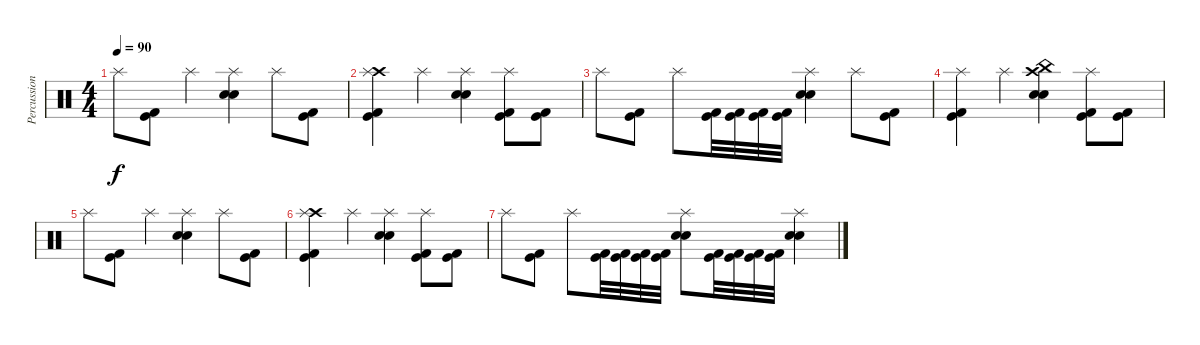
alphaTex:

\track ("Percussion" "Percussion") {instrument percussion}
\staff {score}
\articulation defaults
\ts (4 4)
\tempo 90
\clef neutral
\ks c "Splash (hit)".8{dy f}
("Kick (hit)" "Kick (hit) 2").8 "Splash (hit)".4 ("Splash (hit)" "Electric Snare (hit)" "Snare (hit) 2").4 "Splash (hit)".8 ("Kick (hit)" "Kick (hit) 2").8 |
("Crash high (hit)" "Splash (hit)" "Kick (hit)" "Kick (hit) 2").4 "Splash (hit)".4 ("Splash (hit)" "Electric Snare (hit)" "Snare (hit) 2").4 ("Splash (hit)" "Kick (hit)" "Kick (hit) 2").8 ("Kick (hit)" "Kick (hit) 2").8 |
"Splash (hit)".8 ("Kick (hit)" "Kick (hit) 2").8 "Splash (hit)".8 ("Kick (hit)" "Kick (hit) 2").32 ("Kick (hit)" "Kick (hit) 2").32 ("Kick (hit)" "Kick (hit) 2").32 ("Kick (hit)" "Kick (hit) 2").32 ("Splash (hit)" "Electric Snare (hit)" "Snare (hit) 2").4 "Splash (hit)".8 ("Kick (hit)" "Kick (hit) 2").8 |
("Splash (hit)" "Kick (hit)" "Kick (hit) 2").4{volume 0} "Splash (hit)".4 ("Crash high (hit)" "China (hit)" "Electric Snare (hit)" "Snare (hit) 2").4 ("Splash (hit)" "Kick (hit)" "Kick (hit) 2").8 ("Kick (hit)" "Kick (hit) 2").8 |
"Splash (hit)".8 ("Kick (hit)" "Kick (hit) 2").8 "Splash (hit)".4 ("Splash (hit)" "Electric Snare (hit)" "Snare (hit) 2").4 "Splash (hit)".8 ("Kick (hit)" "Kick (hit) 2").8 |
("Crash high (hit)" "Splash (hit)" "Kick (hit)" "Kick (hit) 2").4 "Splash (hit)".4 ("Splash (hit)" "Electric Snare (hit)" "Snare (hit) 2").4 ("Splash (hit)" "Kick (hit)" "Kick (hit) 2").8 ("Kick (hit)" "Kick (hit) 2").8 |
"Splash (hit)".8 ("Kick (hit)" "Kick (hit) 2").8 "Splash (hit)".8 ("Kick (hit)" "Kick (hit) 2").32 ("Kick (hit)" "Kick (hit) 2").32 ("Kick (hit)" "Kick (hit) 2").32 ("Kick (hit)" "Kick (hit) 2").32 ("Splash (hit)" "Electric Snare (hit)" "Snare (hit) 2").8 ("Kick (hit)" "Kick (hit) 2").32 ("Kick (hit)" "Kick (hit) 2").32 ("Kick (hit)" "Kick (hit) 2").32 ("Kick (hit)" "Kick (hit) 2").32 ("Splash (hit)" "Electric Snare (hit)" "Snare (hit) 2").4
